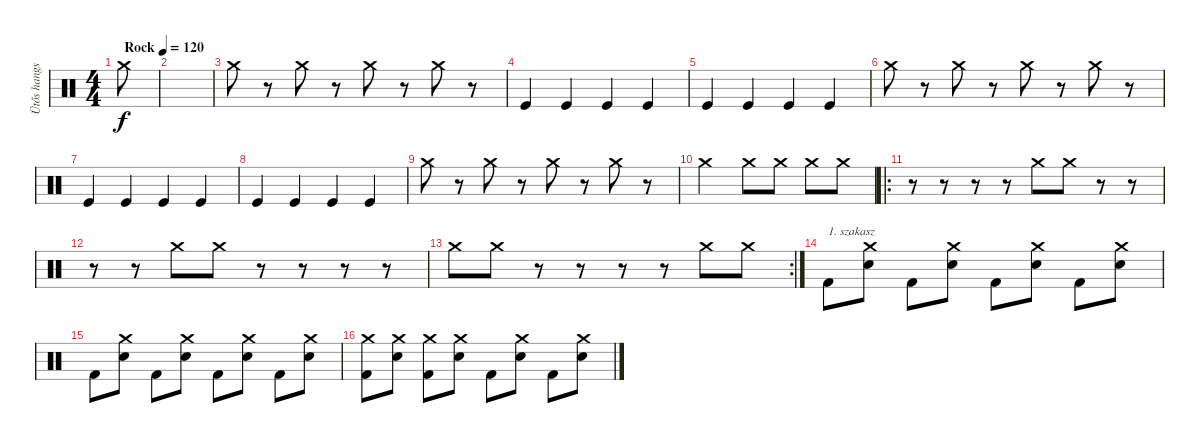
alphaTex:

\track ("Ütős hangszer" "Ütős hangs") {instrument percussion}
\staff {score}
\articulation defaults
\ts (4 4)
\tempo (120 "Rock")
\clef neutral
\ks c "Crash medium (hit)".8{dy f}
|
|
"Crash medium (hit)".8 r.8 "Crash medium (hit)".8 r.8 "Crash medium (hit)".8 r.8 "Crash medium (hit)".8 r.8 |
"Kick (hit)".4 "Kick (hit)".4 "Kick (hit)".4 "Kick (hit)".4 |
"Kick (hit)".4 "Kick (hit)".4 "Kick (hit)".4 "Kick (hit)".4 |
"Crash medium (hit)".8 r.8 "Crash medium (hit)".8 r.8 "Crash medium (hit)".8 r.8 "Crash medium (hit)".8 r.8 |
"Kick (hit)".4 "Kick (hit)".4 "Kick (hit)".4 "Kick (hit)".4 |
"Kick (hit)".4 "Kick (hit)".4 "Kick (hit)".4 "Kick (hit)".4 |
"Crash medium (hit)".8 r.8 "Crash medium (hit)".8 r.8 "Crash medium (hit)".8 r.8 "Crash medium (hit)".8 r.8 |
"Crash medium (hit)".2 "Crash medium (hit)".8 "Crash medium (hit)".8 "Crash medium (hit)".8 "Crash medium (hit)".8 |
\ro
r.8 r.8 r.8 r.8 "Crash medium (hit)".8 "Crash medium (hit)".8 r.8 r.8 |
r.8 r.8 "Crash medium (hit)".8 "Crash medium (hit)".8 r.8 r.8 r.8 r.8 |
\rc 2 "Crash medium (hit)".8 "Crash medium (hit)".8
r.8 r.8 r.8 r.8 "Crash medium (hit)".8 "Crash medium (hit)".8 |
"Kick (hit) 2".8{txt "1. szakasz"} ("Crash medium (hit)" "Snare (hit) 2").8 "Kick (hit) 2".8 ("Crash medium (hit)" "Snare (hit) 2").8 "Kick (hit) 2".8 ("Crash medium (hit)" "Snare (hit) 2").8 "Kick (hit) 2".8 ("Crash medium (hit)" "Snare (hit) 2").8 |
"Kick (hit) 2".8 ("Crash medium (hit)" "Snare (hit) 2").8 "Kick (hit) 2".8 ("Crash medium (hit)" "Snare (hit) 2").8 "Kick (hit) 2".8 ("Crash medium (hit)" "Snare (hit) 2").8 "Kick (hit) 2".8 ("Crash medium (hit)" "Snare (hit) 2").8 |
("Crash medium (hit)" "Kick (hit) 2").8 ("Crash medium (hit)" "Snare (hit) 2").8 ("Crash medium (hit)" "Kick (hit) 2").8 ("Crash medium (hit)" "Snare (hit) 2").8 "Kick (hit) 2".8 ("Crash medium (hit)" "Snare (hit) 2").8 "Kick (hit) 2".8 ("Crash medium (hit)" "Snare (hit) 2").8
